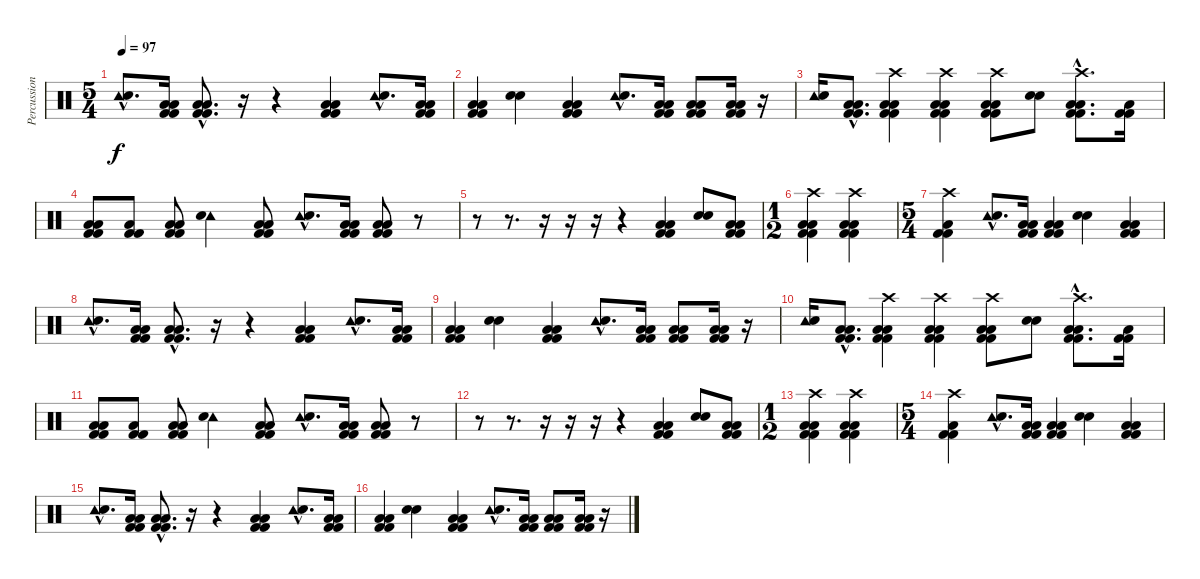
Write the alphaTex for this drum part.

\track ("Percussions" "Percussion") {instrument percussion}
\staff {score}
\articulation defaults
\ts (5 4)
\tempo 97
\clef neutral
\ks c
("Tambourine (hit)"{hac} "Electric Snare (hit)"{hac}).8{d dy f} ("Kick (hit) 2" "Kick (hit) 2" "Low Floor Tom (hit)" "Low Floor Tom (hit)").16 ("Kick (hit) 2"{hac} "Kick (hit) 2"{hac} "Low Floor Tom (hit)"{hac} "Low Floor Tom (hit)"{hac}).8{d} r.16 r.4 ("Kick (hit) 2" "Kick (hit) 2" "Low Floor Tom (hit)" "Low Floor Tom (hit)").4 ("Tambourine (hit)"{hac} "Electric Snare (hit)"{hac}).8{d} ("Kick (hit) 2" "Kick (hit) 2" "Low Floor Tom (hit)" "Low Floor Tom (hit)").16 |
("Kick (hit) 2" "Kick (hit) 2" "Low Floor Tom (hit)" "Low Floor Tom (hit)").4 ("Electric Snare (hit)" "Electric Snare (hit)").4 ("Kick (hit) 2" "Kick (hit) 2" "Low Floor Tom (hit)" "Low Floor Tom (hit)").4 ("Tambourine (hit)"{hac} "Electric Snare (hit)"{hac}).8{d} ("Kick (hit) 2" "Kick (hit) 2" "Low Floor Tom (hit)" "Low Floor Tom (hit)").16 ("Kick (hit) 2" "Kick (hit) 2" "Low Floor Tom (hit)" "Low Floor Tom (hit)").8 ("Kick (hit) 2" "Kick (hit) 2" "Low Floor Tom (hit)" "Low Floor Tom (hit)").16 r.16 |
("Tambourine (hit)" "Electric Snare (hit)").16 ("Kick (hit) 2"{hac} "Kick (hit) 2"{hac} "Low Floor Tom (hit)"{hac} "Low Floor Tom (hit)"{hac}).8{d} ("Kick (hit) 2" "Kick (hit) 2" "Low Floor Tom (hit)" "Low Floor Tom (hit)" "Crash high (hit)").4 ("Kick (hit) 2" "Kick (hit) 2" "Low Floor Tom (hit)" "Low Floor Tom (hit)" "Crash high (hit)").4 ("Kick (hit) 2" "Kick (hit) 2" "Low Floor Tom (hit)" "Low Floor Tom (hit)" "Crash high (hit)").8 ("Electric Snare (hit)" "Electric Snare (hit)").8 ("Kick (hit) 2"{hac} "Kick (hit) 2"{hac} "Low Floor Tom (hit)"{hac} "Low Floor Tom (hit)"{hac} "Crash high (hit)"{hac}).8{d} ("Kick (hit) 2" "Kick (hit) 2" "Low Floor Tom (hit)").16 |
("Kick (hit) 2" "Kick (hit) 2" "Low Floor Tom (hit)" "Low Floor Tom (hit)").8 ("Kick (hit) 2" "Kick (hit) 2" "Low Floor Tom (hit)").8 ("Kick (hit) 2" "Kick (hit) 2" "Low Floor Tom (hit)" "Low Floor Tom (hit)").8 ("Tambourine (hit)" "Electric Snare (hit)").4 ("Kick (hit) 2" "Kick (hit) 2" "Low Floor Tom (hit)" "Low Floor Tom (hit)").8 ("Tambourine (hit)"{hac} "Electric Snare (hit)"{hac}).8{d} ("Kick (hit) 2" "Kick (hit) 2" "Low Floor Tom (hit)" "Low Floor Tom (hit)").16 ("Kick (hit) 2" "Kick (hit) 2" "Low Floor Tom (hit)" "Low Floor Tom (hit)").8 r.8 |
r.8 r.8{d} r.16 r.16 r.16 r.4 ("Kick (hit) 2" "Kick (hit) 2" "Low Floor Tom (hit)" "Low Floor Tom (hit)").4 ("Electric Snare (hit)" "Electric Snare (hit)").8 ("Kick (hit) 2" "Kick (hit) 2" "Low Floor Tom (hit)" "Low Floor Tom (hit)").8 |
\ts (1 2)
("Kick (hit) 2" "Kick (hit) 2" "Low Floor Tom (hit)" "Low Floor Tom (hit)" "Crash high (hit)").4 ("Kick (hit) 2" "Kick (hit) 2" "Low Floor Tom (hit)" "Low Floor Tom (hit)" "Crash high (hit)").4 |
\ts (5 4)
("Kick (hit) 2" "Kick (hit) 2" "Low Floor Tom (hit)" "Crash high (hit)").4 ("Tambourine (hit)"{hac} "Electric Snare (hit)"{hac}).8{d} ("Kick (hit) 2" "Kick (hit) 2" "Low Floor Tom (hit)" "Low Floor Tom (hit)").16 ("Kick (hit) 2" "Kick (hit) 2" "Low Floor Tom (hit)" "Low Floor Tom (hit)").4 ("Electric Snare (hit)" "Electric Snare (hit)").4 ("Kick (hit) 2" "Kick (hit) 2" "Low Floor Tom (hit)" "Low Floor Tom (hit)").4 |
("Tambourine (hit)"{hac} "Electric Snare (hit)"{hac}).8{d} ("Kick (hit) 2" "Kick (hit) 2" "Low Floor Tom (hit)" "Low Floor Tom (hit)").16 ("Kick (hit) 2"{hac} "Kick (hit) 2"{hac} "Low Floor Tom (hit)"{hac} "Low Floor Tom (hit)"{hac}).8{d} r.16 r.4 ("Kick (hit) 2" "Kick (hit) 2" "Low Floor Tom (hit)" "Low Floor Tom (hit)").4 ("Tambourine (hit)"{hac} "Electric Snare (hit)"{hac}).8{d} ("Kick (hit) 2" "Kick (hit) 2" "Low Floor Tom (hit)" "Low Floor Tom (hit)").16 |
("Kick (hit) 2" "Kick (hit) 2" "Low Floor Tom (hit)" "Low Floor Tom (hit)").4 ("Electric Snare (hit)" "Electric Snare (hit)").4 ("Kick (hit) 2" "Kick (hit) 2" "Low Floor Tom (hit)" "Low Floor Tom (hit)").4 ("Tambourine (hit)"{hac} "Electric Snare (hit)"{hac}).8{d} ("Kick (hit) 2" "Kick (hit) 2" "Low Floor Tom (hit)" "Low Floor Tom (hit)").16 ("Kick (hit) 2" "Kick (hit) 2" "Low Floor Tom (hit)" "Low Floor Tom (hit)").8 ("Kick (hit) 2" "Kick (hit) 2" "Low Floor Tom (hit)" "Low Floor Tom (hit)").16 r.16 |
("Tambourine (hit)" "Electric Snare (hit)").16 ("Kick (hit) 2"{hac} "Kick (hit) 2"{hac} "Low Floor Tom (hit)"{hac} "Low Floor Tom (hit)"{hac}).8{d} ("Kick (hit) 2" "Kick (hit) 2" "Low Floor Tom (hit)" "Low Floor Tom (hit)" "Crash high (hit)").4 ("Kick (hit) 2" "Kick (hit) 2" "Low Floor Tom (hit)" "Low Floor Tom (hit)" "Crash high (hit)").4 ("Kick (hit) 2" "Kick (hit) 2" "Low Floor Tom (hit)" "Low Floor Tom (hit)" "Crash high (hit)").8 ("Electric Snare (hit)" "Electric Snare (hit)").8 ("Kick (hit) 2"{hac} "Kick (hit) 2"{hac} "Low Floor Tom (hit)"{hac} "Low Floor Tom (hit)"{hac} "Crash high (hit)"{hac}).8{d} ("Kick (hit) 2" "Kick (hit) 2" "Low Floor Tom (hit)").16 |
("Kick (hit) 2" "Kick (hit) 2" "Low Floor Tom (hit)" "Low Floor Tom (hit)").8 ("Kick (hit) 2" "Kick (hit) 2" "Low Floor Tom (hit)").8 ("Kick (hit) 2" "Kick (hit) 2" "Low Floor Tom (hit)" "Low Floor Tom (hit)").8 ("Tambourine (hit)" "Electric Snare (hit)").4 ("Kick (hit) 2" "Kick (hit) 2" "Low Floor Tom (hit)" "Low Floor Tom (hit)").8 ("Tambourine (hit)"{hac} "Electric Snare (hit)"{hac}).8{d} ("Kick (hit) 2" "Kick (hit) 2" "Low Floor Tom (hit)" "Low Floor Tom (hit)").16 ("Kick (hit) 2" "Kick (hit) 2" "Low Floor Tom (hit)" "Low Floor Tom (hit)").8 r.8 |
r.8 r.8{d} r.16 r.16 r.16 r.4 ("Kick (hit) 2" "Kick (hit) 2" "Low Floor Tom (hit)" "Low Floor Tom (hit)").4 ("Electric Snare (hit)" "Electric Snare (hit)").8 ("Kick (hit) 2" "Kick (hit) 2" "Low Floor Tom (hit)" "Low Floor Tom (hit)").8 |
\ts (1 2)
("Kick (hit) 2" "Kick (hit) 2" "Low Floor Tom (hit)" "Low Floor Tom (hit)" "Crash high (hit)").4 ("Kick (hit) 2" "Kick (hit) 2" "Low Floor Tom (hit)" "Low Floor Tom (hit)" "Crash high (hit)").4 |
\ts (5 4)
("Kick (hit) 2" "Kick (hit) 2" "Low Floor Tom (hit)" "Crash high (hit)").4 ("Tambourine (hit)"{hac} "Electric Snare (hit)"{hac}).8{d} ("Kick (hit) 2" "Kick (hit) 2" "Low Floor Tom (hit)" "Low Floor Tom (hit)").16 ("Kick (hit) 2" "Kick (hit) 2" "Low Floor Tom (hit)" "Low Floor Tom (hit)").4{volume 13} ("Electric Snare (hit)" "Electric Snare (hit)").4 ("Kick (hit) 2" "Kick (hit) 2" "Low Floor Tom (hit)" "Low Floor Tom (hit)").4 |
("Tambourine (hit)"{hac} "Electric Snare (hit)"{hac}).8{d} ("Kick (hit) 2" "Kick (hit) 2" "Low Floor Tom (hit)" "Low Floor Tom (hit)").16 ("Kick (hit) 2"{hac} "Kick (hit) 2"{hac} "Low Floor Tom (hit)"{hac} "Low Floor Tom (hit)"{hac}).8{d} r.16 r.4 ("Kick (hit) 2" "Kick (hit) 2" "Low Floor Tom (hit)" "Low Floor Tom (hit)").4 ("Tambourine (hit)"{hac} "Electric Snare (hit)"{hac}).8{d} ("Kick (hit) 2" "Kick (hit) 2" "Low Floor Tom (hit)" "Low Floor Tom (hit)").16{volume 10} |
("Kick (hit) 2" "Kick (hit) 2" "Low Floor Tom (hit)" "Low Floor Tom (hit)").4 ("Electric Snare (hit)" "Electric Snare (hit)").4 ("Kick (hit) 2" "Kick (hit) 2" "Low Floor Tom (hit)" "Low Floor Tom (hit)").4 ("Tambourine (hit)"{hac} "Electric Snare (hit)"{hac}).8{d} ("Kick (hit) 2" "Kick (hit) 2" "Low Floor Tom (hit)" "Low Floor Tom (hit)").16 ("Kick (hit) 2" "Kick (hit) 2" "Low Floor Tom (hit)" "Low Floor Tom (hit)").8 ("Kick (hit) 2" "Kick (hit) 2" "Low Floor Tom (hit)" "Low Floor Tom (hit)").16 r.16
